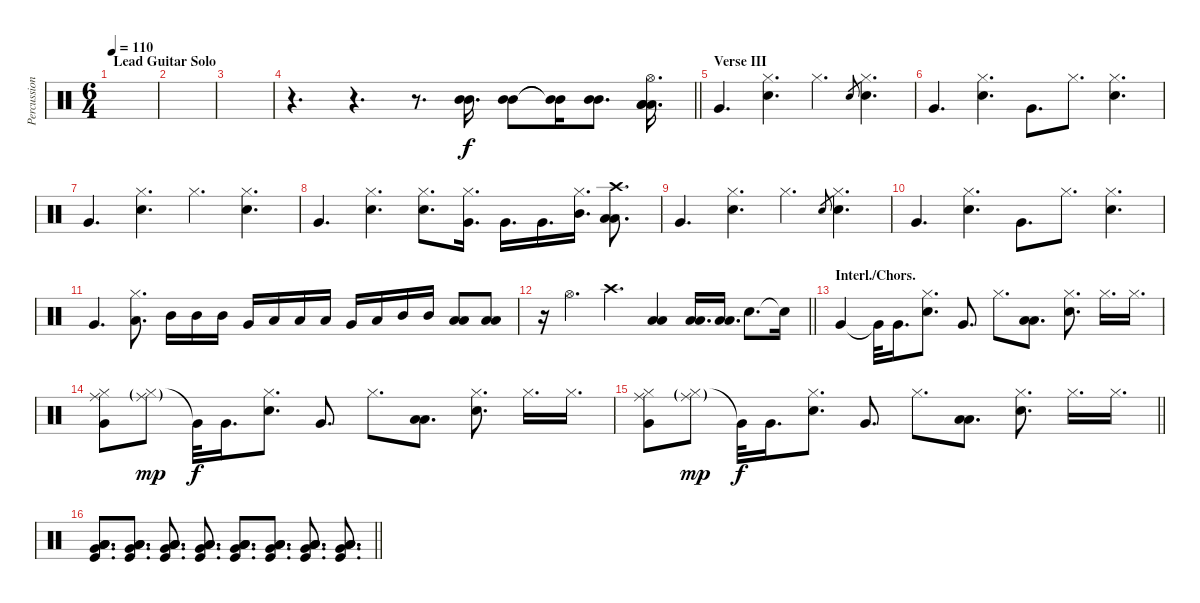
\track ("Percussion" "Percussion") {instrument percussion}
\staff {score}
\articulation defaults
\ts (6 4)
\section ("" "Lead Guitar Solo")
\tempo 110
\clef neutral
\ks c
|
|
|
\barLineRight lightlight
r.4{d} r.4{d} r.8{d} ("Mid Tom (hit)" "Mid Tom (hit)").16{d} ("Mid Tom (hit)" "Mid Tom (hit)").8 ("Mid Tom (hit)"{t} "Mid Tom (hit)"{t}).16 ("Mid Tom (hit)" "Mid Tom (hit)").8{d} ("Low Floor Tom (hit)" "Low Floor Tom (hit)" "Low Floor Tom (hit)" "Hi-Hat (open)").16{d} |
\section ("" "Verse III")
"Very Low Tom (hit)".4{d volume 10} ("Hi-Hat (closed)" "Snare (hit) 2").4{d} "Hi-Hat (closed)".4{d} "Snare (hit) 2".8{gr} ("Hi-Hat (closed)" "Snare (hit) 2").4{d} |
"Very Low Tom (hit)".4{d} ("Hi-Hat (closed)" "Snare (hit) 2").4{d} "Very Low Tom (hit)".8{d} "Hi-Hat (closed)".8{d} ("Hi-Hat (closed)" "Snare (hit) 2").4{d} |
"Very Low Tom (hit)".4{d} ("Hi-Hat (closed)" "Snare (hit) 2").4{d} "Hi-Hat (closed)".4{d} ("Hi-Hat (closed)" "Snare (hit) 2").4{d} |
"Very Low Tom (hit)".4{d} ("Hi-Hat (closed)" "Snare (hit) 2").4{d} ("Hi-Hat (closed)" "Snare (hit) 2").8{d volume 16} ("Very Low Tom (hit)" "Hi-Hat (closed)").16{d} "Very Low Tom (hit)".16{d} "Very Low Tom (hit)".16{d} ("Mid Tom (hit)" "Hi-Hat (closed)").16{d} ("Crash high (hit)" "Low Floor Tom (hit)" "Low Floor Tom (hit)").8{d} |
"Very Low Tom (hit)".4{d volume 10} ("Hi-Hat (closed)" "Snare (hit) 2").4{d} "Hi-Hat (closed)".4{d} "Snare (hit) 2".8{gr} ("Hi-Hat (closed)" "Snare (hit) 2").4{d} |
"Very Low Tom (hit)".4{d} ("Hi-Hat (closed)" "Snare (hit) 2").4{d} "Very Low Tom (hit)".8{d} "Hi-Hat (closed)".8{d} ("Hi-Hat (closed)" "Snare (hit) 2").4{d} |
"Very Low Tom (hit)".4{d} ("Low Floor Tom (hit)" "Hi-Hat (closed)").8{d volume 16} "Mid Tom (hit)".16 "Mid Tom (hit)".16 "Mid Tom (hit)".16 "Very Low Tom (hit)".16 "Low Tom (hit)".16 "Low Tom (hit)".16 "Low Tom (hit)".16 "Very Low Tom (hit)".16 "Low Floor Tom (hit)".16 "Mid Tom (hit)".16 "Mid Tom (hit)".16 ("Low Floor Tom (hit)" "Low Floor Tom (hit)").8 ("Low Floor Tom (hit)" "Low Floor Tom (hit)").8 |
\barLineRight lightlight
r.16 "Hi-Hat (open)".4{d volume 11} "Crash high (hit)".4{d} ("Low Floor Tom (hit)" "Low Floor Tom (hit)").4 ("Low Tom (hit)" "Low Tom (hit)").16{d} ("Low Tom (hit)" "Low Tom (hit)").16{d} "Snare (hit) 2".8{d} "Snare (hit) 2"{t}.16 |
\section ("" "Interl./Chors.")
"Very Low Tom (hit)".4 "Very Low Tom (hit)"{t}.32 "Very Low Tom (hit)".16{d} ("Hi-Hat (closed)" "Snare (hit) 2").8{d} "Very Low Tom (hit)".8{d} "Hi-Hat (closed)".8{d} ("Low Floor Tom (hit)" "Low Floor Tom (hit)").8{d} ("Hi-Hat (closed)" "Snare (hit) 2").8{d} "Hi-Hat (closed)".16{d} "Hi-Hat (closed)".16{d} |
("Very Low Tom (hit)" "Hi-Hat (closed)" "Ride (middle)").8 ("Hi-Hat (closed)"{g} "Ride (middle)"{g}).8{dy mp} "Very Low Tom (hit)"{t}.32{dy f} "Very Low Tom (hit)".16{d} ("Hi-Hat (closed)" "Snare (hit) 2").8{d} "Very Low Tom (hit)".8{d} "Hi-Hat (closed)".8{d} ("Low Floor Tom (hit)" "Low Floor Tom (hit)").8{d} ("Hi-Hat (closed)" "Snare (hit) 2").8{d} "Hi-Hat (closed)".16{d} "Hi-Hat (closed)".16{d} |
\barLineRight lightlight
("Very Low Tom (hit)" "Hi-Hat (closed)" "Ride (middle)").8 ("Hi-Hat (closed)"{g} "Ride (middle)"{g}).8{dy mp} "Very Low Tom (hit)"{t}.32{dy f} "Very Low Tom (hit)".16{d} ("Hi-Hat (closed)" "Snare (hit) 2").8{d} "Very Low Tom (hit)".8{d} "Hi-Hat (closed)".8{d} ("Low Floor Tom (hit)" "Low Floor Tom (hit)").8{d} ("Hi-Hat (closed)" "Snare (hit) 2").8{d} "Hi-Hat (closed)".16{d} "Hi-Hat (closed)".16{d} |
\section ("" "")
\barLineRight lightlight
("Very Low Tom (hit)" "Kick (hit)" "Low Floor Tom (hit)" "Low Floor Tom (hit)" "Low Floor Tom (hit)").8{d volume 16} ("Very Low Tom (hit)" "Kick (hit)" "Low Floor Tom (hit)" "Low Floor Tom (hit)" "Low Floor Tom (hit)").8{d} ("Very Low Tom (hit)" "Kick (hit)" "Low Floor Tom (hit)" "Low Floor Tom (hit)" "Low Floor Tom (hit)").8{d} ("Very Low Tom (hit)" "Kick (hit)" "Low Floor Tom (hit)" "Low Floor Tom (hit)" "Low Floor Tom (hit)").8{d} ("Very Low Tom (hit)" "Kick (hit)" "Low Floor Tom (hit)" "Low Floor Tom (hit)" "Low Floor Tom (hit)").8{d} ("Very Low Tom (hit)" "Kick (hit)" "Low Floor Tom (hit)" "Low Floor Tom (hit)" "Low Floor Tom (hit)").8{d} ("Very Low Tom (hit)" "Kick (hit)" "Low Floor Tom (hit)" "Low Floor Tom (hit)" "Low Floor Tom (hit)").8{d} ("Very Low Tom (hit)" "Kick (hit)" "Low Floor Tom (hit)" "Low Floor Tom (hit)" "Low Floor Tom (hit)").8{d}
